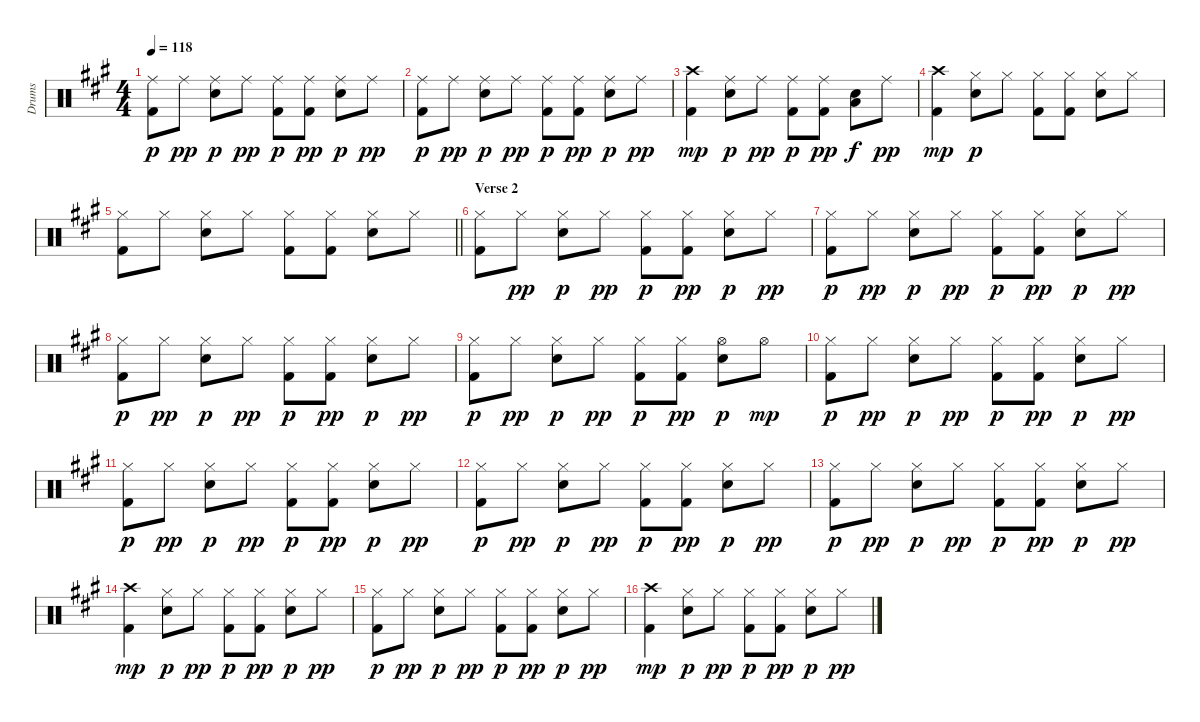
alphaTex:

\track ("Drums" "Drums") {instrument percussion}
\staff {score}
\articulation defaults
\ts (4 4)
\tempo 118
\clef neutral
\ks a
("Kick (hit) 2" "Ride (middle)").8{dy p} "Ride (middle)".8{dy pp} ("Electric Snare (hit)" "Ride (middle)").8{dy p} "Ride (middle)".8{dy pp} ("Kick (hit) 2" "Ride (middle)").8{dy p} ("Kick (hit) 2" "Ride (middle)").8{dy pp} ("Electric Snare (hit)" "Ride (middle)").8{dy p} "Ride (middle)".8{dy pp} |
("Kick (hit) 2" "Ride (middle)").8{dy p} "Ride (middle)".8{dy pp} ("Electric Snare (hit)" "Ride (middle)").8{dy p} "Ride (middle)".8{dy pp} ("Kick (hit) 2" "Ride (middle)").8{dy p} ("Kick (hit) 2" "Ride (middle)").8{dy pp} ("Electric Snare (hit)" "Ride (middle)").8{dy p} "Ride (middle)".8{dy pp} |
("Crash high (hit)" "Kick (hit) 2").4{dy mp} ("Electric Snare (hit)" "Ride (middle)").8{dy p} "Ride (middle)".8{dy pp} ("Kick (hit) 2" "Ride (middle)").8{dy p} ("Kick (hit) 2" "Ride (middle)").8{dy pp} ("Low Tom (hit)" "Electric Snare (hit)").8{dy f} "Ride (middle)".8{dy pp} |
("Crash high (hit)" "Kick (hit) 2").4{dy mp} ("Hi-Hat (closed)" "Electric Snare (hit)").8{dy p} "Hi-Hat (closed)".8 ("Hi-Hat (closed)" "Kick (hit) 2").8 ("Hi-Hat (closed)" "Kick (hit) 2").8 ("Hi-Hat (closed)" "Electric Snare (hit)").8 "Hi-Hat (closed)".8 |
\barLineRight lightlight
("Hi-Hat (closed)" "Kick (hit) 2").8 "Hi-Hat (closed)".8 ("Hi-Hat (closed)" "Electric Snare (hit)").8 "Hi-Hat (closed)".8 ("Hi-Hat (closed)" "Kick (hit) 2").8 ("Hi-Hat (closed)" "Kick (hit) 2").8 ("Hi-Hat (closed)" "Electric Snare (hit)").8 "Hi-Hat (closed)".8 |
\section ("" "Verse 2")
("Hi-Hat (closed)" "Kick (hit) 2").8 "Hi-Hat (closed)".8{dy pp} ("Hi-Hat (closed)" "Electric Snare (hit)").8{dy p} "Hi-Hat (closed)".8{dy pp} ("Hi-Hat (closed)" "Kick (hit) 2").8{dy p} ("Hi-Hat (closed)" "Kick (hit) 2").8{dy pp} ("Hi-Hat (closed)" "Electric Snare (hit)").8{dy p} "Hi-Hat (closed)".8{dy pp} |
("Hi-Hat (closed)" "Kick (hit) 2").8{dy p} "Hi-Hat (closed)".8{dy pp} ("Hi-Hat (closed)" "Electric Snare (hit)").8{dy p} "Hi-Hat (closed)".8{dy pp} ("Hi-Hat (closed)" "Kick (hit) 2").8{dy p} ("Hi-Hat (closed)" "Kick (hit) 2").8{dy pp} ("Hi-Hat (closed)" "Electric Snare (hit)").8{dy p} "Hi-Hat (closed)".8{dy pp} |
("Hi-Hat (closed)" "Kick (hit) 2").8{dy p} "Hi-Hat (closed)".8{dy pp} ("Hi-Hat (closed)" "Electric Snare (hit)").8{dy p} "Hi-Hat (closed)".8{dy pp} ("Hi-Hat (closed)" "Kick (hit) 2").8{dy p} ("Hi-Hat (closed)" "Kick (hit) 2").8{dy pp} ("Hi-Hat (closed)" "Electric Snare (hit)").8{dy p} "Hi-Hat (closed)".8{dy pp} |
("Hi-Hat (closed)" "Kick (hit) 2").8{dy p} "Hi-Hat (closed)".8{dy pp} ("Hi-Hat (closed)" "Electric Snare (hit)").8{dy p} "Hi-Hat (closed)".8{dy pp} ("Hi-Hat (closed)" "Kick (hit) 2").8{dy p} ("Hi-Hat (closed)" "Kick (hit) 2").8{dy pp} ("Hi-Hat (open)" "Electric Snare (hit)").8{dy p} "Hi-Hat (open)".8{dy mp} |
("Hi-Hat (closed)" "Kick (hit) 2").8{dy p} "Hi-Hat (closed)".8{dy pp} ("Hi-Hat (closed)" "Electric Snare (hit)").8{dy p} "Hi-Hat (closed)".8{dy pp} ("Hi-Hat (closed)" "Kick (hit) 2").8{dy p} ("Hi-Hat (closed)" "Kick (hit) 2").8{dy pp} ("Hi-Hat (closed)" "Electric Snare (hit)").8{dy p} "Hi-Hat (closed)".8{dy pp} |
("Hi-Hat (closed)" "Kick (hit) 2").8{dy p} "Hi-Hat (closed)".8{dy pp} ("Hi-Hat (closed)" "Electric Snare (hit)").8{dy p} "Hi-Hat (closed)".8{dy pp} ("Hi-Hat (closed)" "Kick (hit) 2").8{dy p} ("Hi-Hat (closed)" "Kick (hit) 2").8{dy pp} ("Hi-Hat (closed)" "Electric Snare (hit)").8{dy p} "Hi-Hat (closed)".8{dy pp} |
("Hi-Hat (closed)" "Kick (hit) 2").8{dy p} "Hi-Hat (closed)".8{dy pp} ("Hi-Hat (closed)" "Electric Snare (hit)").8{dy p} "Hi-Hat (closed)".8{dy pp} ("Hi-Hat (closed)" "Kick (hit) 2").8{dy p} ("Hi-Hat (closed)" "Kick (hit) 2").8{dy pp} ("Hi-Hat (closed)" "Electric Snare (hit)").8{dy p} "Hi-Hat (closed)".8{dy pp} |
("Hi-Hat (closed)" "Kick (hit) 2").8{dy p} "Hi-Hat (closed)".8{dy pp} ("Hi-Hat (closed)" "Electric Snare (hit)").8{dy p} "Hi-Hat (closed)".8{dy pp} ("Hi-Hat (closed)" "Kick (hit) 2").8{dy p} ("Hi-Hat (closed)" "Kick (hit) 2").8{dy pp} ("Hi-Hat (closed)" "Electric Snare (hit)").8{dy p} "Hi-Hat (closed)".8{dy pp} |
("Crash high (hit)" "Kick (hit) 2").4{dy mp} ("Hi-Hat (closed)" "Electric Snare (hit)").8{dy p} "Hi-Hat (closed)".8{dy pp} ("Hi-Hat (closed)" "Kick (hit) 2").8{dy p} ("Hi-Hat (closed)" "Kick (hit) 2").8{dy pp} ("Hi-Hat (closed)" "Electric Snare (hit)").8{dy p} "Hi-Hat (closed)".8{dy pp} |
("Hi-Hat (closed)" "Kick (hit) 2").8{dy p} "Hi-Hat (closed)".8{dy pp} ("Hi-Hat (closed)" "Electric Snare (hit)").8{dy p} "Hi-Hat (closed)".8{dy pp} ("Hi-Hat (closed)" "Kick (hit) 2").8{dy p} ("Hi-Hat (closed)" "Kick (hit) 2").8{dy pp} ("Hi-Hat (closed)" "Electric Snare (hit)").8{dy p} "Hi-Hat (closed)".8{dy pp} |
("Crash high (hit)" "Kick (hit) 2").4{dy mp} ("Hi-Hat (closed)" "Electric Snare (hit)").8{dy p} "Hi-Hat (closed)".8{dy pp} ("Hi-Hat (closed)" "Kick (hit) 2").8{dy p} ("Hi-Hat (closed)" "Kick (hit) 2").8{dy pp} ("Hi-Hat (closed)" "Electric Snare (hit)").8{dy p} "Hi-Hat (closed)".8{dy pp}
